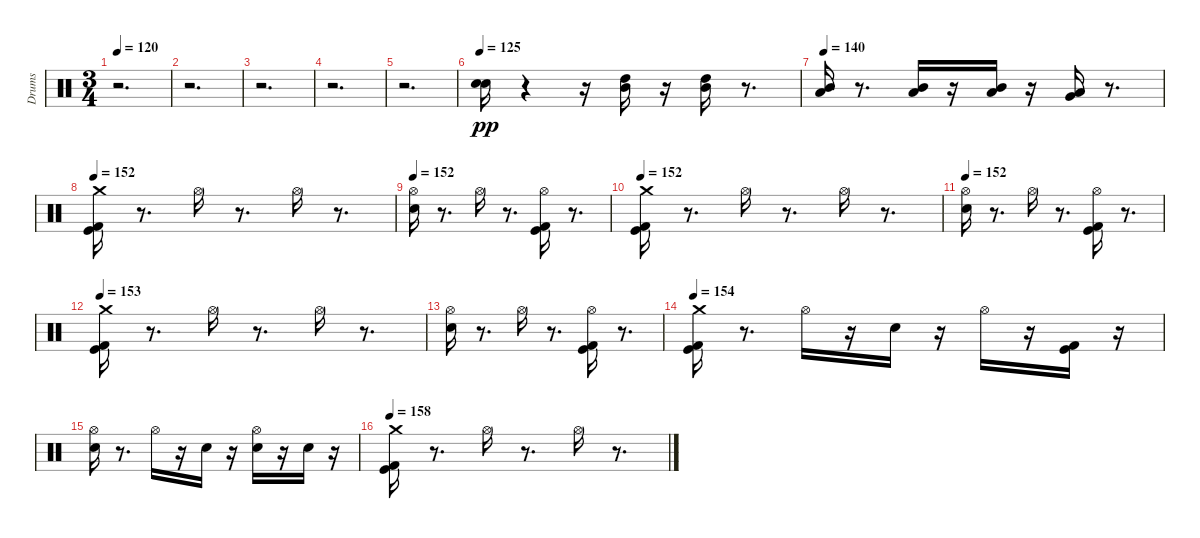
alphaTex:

\track ("Drums" "Drums") {instrument percussion}
\staff {score}
\articulation defaults
\ts (3 4)
\tempo 120
\clef neutral
\ks c
r.2{d dy pp} |
r.2{d} |
r.2{d} |
r.2{d} |
r.2{d} |
\tempo 125
("Electric Snare (hit)" "Electric Snare (hit)").16 r.4 r.16 ("High Tom (hit)" "Mid Tom (hit)").16 r.16 ("High Tom (hit)" "Mid Tom (hit)").16 r.8{d} |
\tempo 140
("Low Tom (hit)" "Mid Tom (hit)").16 r.8{d} ("Low Tom (hit)" "Mid Tom (hit)").16 r.16 ("Low Tom (hit)" "Mid Tom (hit)").16 r.16 ("Low Floor Tom (hit)" "Very Low Tom (hit)").16 r.8{d} |
\tempo 152
("Crash medium (hit)" "Kick (hit) 2" "Kick (hit)").16 r.8{d} "Hi-Hat (open)".16 r.8{d} "Hi-Hat (open)".16 r.8{d} |
\tempo 152
("Hi-Hat (open)" "Snare (hit) 2").16 r.8{d} "Hi-Hat (open)".16 r.8{d} ("Kick (hit) 2" "Kick (hit)" "Hi-Hat (open)").16 r.8{d} |
\tempo 152
("Crash medium (hit)" "Kick (hit) 2" "Kick (hit)").16 r.8{d} "Hi-Hat (open)".16 r.8{d} "Hi-Hat (open)".16 r.8{d} |
\tempo 152
("Hi-Hat (open)" "Snare (hit) 2").16 r.8{d} "Hi-Hat (open)".16 r.8{d} ("Kick (hit)" "Kick (hit) 2" "Hi-Hat (open)").16 r.8{d} |
\tempo 153
("Crash medium (hit)" "Kick (hit) 2" "Kick (hit)").16 r.8{d} "Hi-Hat (open)".16 r.8{d} "Hi-Hat (open)".16 r.8{d} |
("Hi-Hat (open)" "Snare (hit) 2").16 r.8{d} "Hi-Hat (open)".16 r.8{d} ("Kick (hit)" "Kick (hit) 2" "Hi-Hat (open)").16 r.8{d} |
\tempo 154
("Crash medium (hit)" "Kick (hit) 2" "Kick (hit)").16 r.8{d} "Hi-Hat (open)".16 r.16 "Snare (hit) 2".16 r.16 "Hi-Hat (open)".16 r.16 ("Kick (hit) 2" "Kick (hit)").16 r.16 |
("Hi-Hat (open)" "Snare (hit) 2").16 r.8{d} "Hi-Hat (open)".16 r.16 "Snare (hit) 2".16 r.16 ("Snare (hit) 2" "Hi-Hat (open)").16 r.16 "Snare (hit) 2".16 r.16 |
\tempo 158
("Crash medium (hit)" "Kick (hit) 2" "Kick (hit)").16 r.8{d} "Hi-Hat (open)".16 r.8{d} "Hi-Hat (open)".16 r.8{d}
